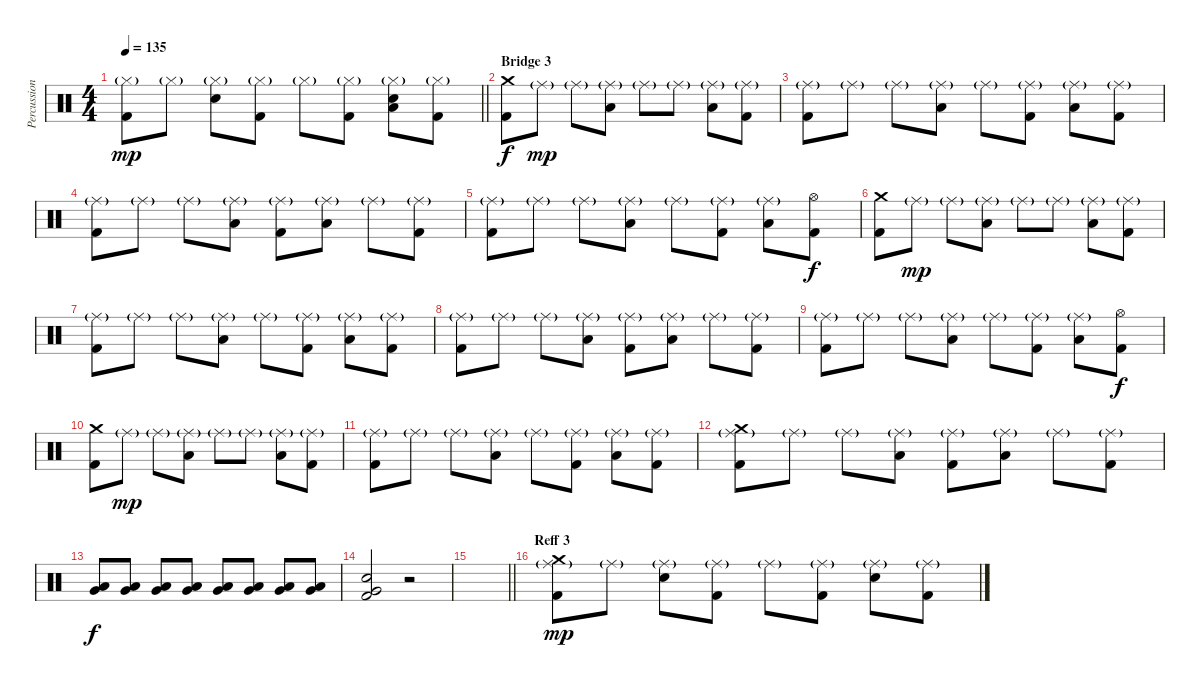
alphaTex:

\track ("Percussion 1" "Percussion") {instrument percussion}
\staff {score}
\articulation defaults
\ts (4 4)
\tempo 135
\clef neutral
\barLineRight lightlight
\ks c
("Hi-Hat (closed)"{g} "Kick (hit) 2").8{dy mp} "Hi-Hat (closed)"{g}.8 ("Hi-Hat (closed)"{g} "Electric Snare (hit)").8 ("Hi-Hat (closed)"{g} "Kick (hit) 2").8 "Hi-Hat (closed)"{g}.8 ("Hi-Hat (closed)"{g} "Kick (hit) 2").8 ("Hi-Hat (closed)"{g} "Electric Snare (hit)" "Low Floor Tom (hit)").8 ("Hi-Hat (closed)"{g} "Kick (hit) 2").8 |
\section ("" "Bridge 3")
("Crash medium (hit)" "Kick (hit) 2").8{dy f} "Ride (middle)"{g}.8{dy mp} "Ride (middle)"{g}.8 ("Ride (middle)"{g} "Low Floor Tom (hit)").8 "Ride (middle)"{g}.8 "Ride (middle)"{g}.8 ("Ride (middle)"{g} "Low Floor Tom (hit)").8 ("Ride (middle)"{g} "Kick (hit) 2").8 |
("Ride (middle)"{g} "Kick (hit) 2").8 "Ride (middle)"{g}.8 "Ride (middle)"{g}.8 ("Ride (middle)"{g} "Low Floor Tom (hit)").8 "Ride (middle)"{g}.8 ("Ride (middle)"{g} "Kick (hit) 2").8 ("Ride (middle)"{g} "Low Floor Tom (hit)").8 ("Ride (middle)"{g} "Kick (hit) 2").8 |
("Ride (middle)"{g} "Kick (hit) 2").8 "Ride (middle)"{g}.8 "Ride (middle)"{g}.8 ("Ride (middle)"{g} "Low Floor Tom (hit)").8 ("Ride (middle)"{g} "Kick (hit) 2").8 ("Ride (middle)"{g} "Low Floor Tom (hit)").8 "Ride (middle)"{g}.8 ("Ride (middle)"{g} "Kick (hit) 2").8 |
("Ride (middle)"{g} "Kick (hit) 2").8 "Ride (middle)"{g}.8 "Ride (middle)"{g}.8 ("Ride (middle)"{g} "Low Floor Tom (hit)").8 "Ride (middle)"{g}.8 ("Ride (middle)"{g} "Kick (hit) 2").8 ("Ride (middle)"{g} "Low Floor Tom (hit)").8 ("Hi-Hat (open)" "Kick (hit) 2").8{dy f} |
("Crash medium (hit)" "Kick (hit) 2").8 "Ride (middle)"{g}.8{dy mp} "Ride (middle)"{g}.8 ("Ride (middle)"{g} "Low Floor Tom (hit)").8 "Ride (middle)"{g}.8 "Ride (middle)"{g}.8 ("Ride (middle)"{g} "Low Floor Tom (hit)").8 ("Ride (middle)"{g} "Kick (hit) 2").8 |
("Ride (middle)"{g} "Kick (hit) 2").8 "Ride (middle)"{g}.8 "Ride (middle)"{g}.8 ("Ride (middle)"{g} "Low Floor Tom (hit)").8 "Ride (middle)"{g}.8 ("Ride (middle)"{g} "Kick (hit) 2").8 ("Ride (middle)"{g} "Low Floor Tom (hit)").8 ("Ride (middle)"{g} "Kick (hit) 2").8 |
("Ride (middle)"{g} "Kick (hit) 2").8 "Ride (middle)"{g}.8 "Ride (middle)"{g}.8 ("Ride (middle)"{g} "Low Floor Tom (hit)").8 ("Ride (middle)"{g} "Kick (hit) 2").8 ("Ride (middle)"{g} "Low Floor Tom (hit)").8 "Ride (middle)"{g}.8 ("Ride (middle)"{g} "Kick (hit) 2").8 |
("Ride (middle)"{g} "Kick (hit) 2").8 "Ride (middle)"{g}.8 "Ride (middle)"{g}.8 ("Ride (middle)"{g} "Low Floor Tom (hit)").8 "Ride (middle)"{g}.8 ("Ride (middle)"{g} "Kick (hit) 2").8 ("Ride (middle)"{g} "Low Floor Tom (hit)").8 ("Hi-Hat (open)" "Kick (hit) 2").8{dy f} |
("Crash medium (hit)" "Kick (hit) 2").8 "Ride (middle)"{g}.8{dy mp} "Ride (middle)"{g}.8 ("Ride (middle)"{g} "Low Floor Tom (hit)").8 "Ride (middle)"{g}.8 "Ride (middle)"{g}.8 ("Ride (middle)"{g} "Low Floor Tom (hit)").8 ("Ride (middle)"{g} "Kick (hit) 2").8 |
("Ride (middle)"{g} "Kick (hit) 2").8 "Ride (middle)"{g}.8 "Ride (middle)"{g}.8 ("Ride (middle)"{g} "Low Floor Tom (hit)").8 "Ride (middle)"{g}.8 ("Ride (middle)"{g} "Kick (hit) 2").8 ("Ride (middle)"{g} "Low Floor Tom (hit)").8 ("Ride (middle)"{g} "Kick (hit) 2").8 |
("Ride (middle)"{g} "Crash medium (hit)" "Kick (hit) 2").8 "Ride (middle)"{g}.8 "Ride (middle)"{g}.8 ("Ride (middle)"{g} "Low Floor Tom (hit)").8 ("Ride (middle)"{g} "Kick (hit) 2").8 ("Ride (middle)"{g} "Low Floor Tom (hit)").8 "Ride (middle)"{g}.8 ("Ride (middle)"{g} "Kick (hit) 2").8 |
("Very Low Tom (hit)" "Low Floor Tom (hit)").8{dy f volume 5} ("Very Low Tom (hit)" "Low Floor Tom (hit)").8{volume 15} ("Very Low Tom (hit)" "Low Floor Tom (hit)").8 ("Very Low Tom (hit)" "Low Floor Tom (hit)").8 ("Very Low Tom (hit)" "Low Floor Tom (hit)").8 ("Very Low Tom (hit)" "Low Floor Tom (hit)").8 ("Very Low Tom (hit)" "Low Floor Tom (hit)").8 ("Very Low Tom (hit)" "Low Floor Tom (hit)").8 |
("Electric Snare (hit)" "Very Low Tom (hit)" "Kick (hit) 2").2 r.2 |
\barLineRight lightlight
|
\section ("" "Reff 3")
("Ride (middle)"{g} "Crash medium (hit)" "Kick (hit) 2").8{dy mp} "Ride (middle)"{g}.8 ("Ride (middle)"{g} "Electric Snare (hit)").8 ("Ride (middle)"{g} "Kick (hit) 2").8 "Ride (middle)"{g}.8 ("Ride (middle)"{g} "Kick (hit) 2").8 ("Ride (middle)"{g} "Electric Snare (hit)").8 ("Ride (middle)"{g} "Kick (hit) 2").8
